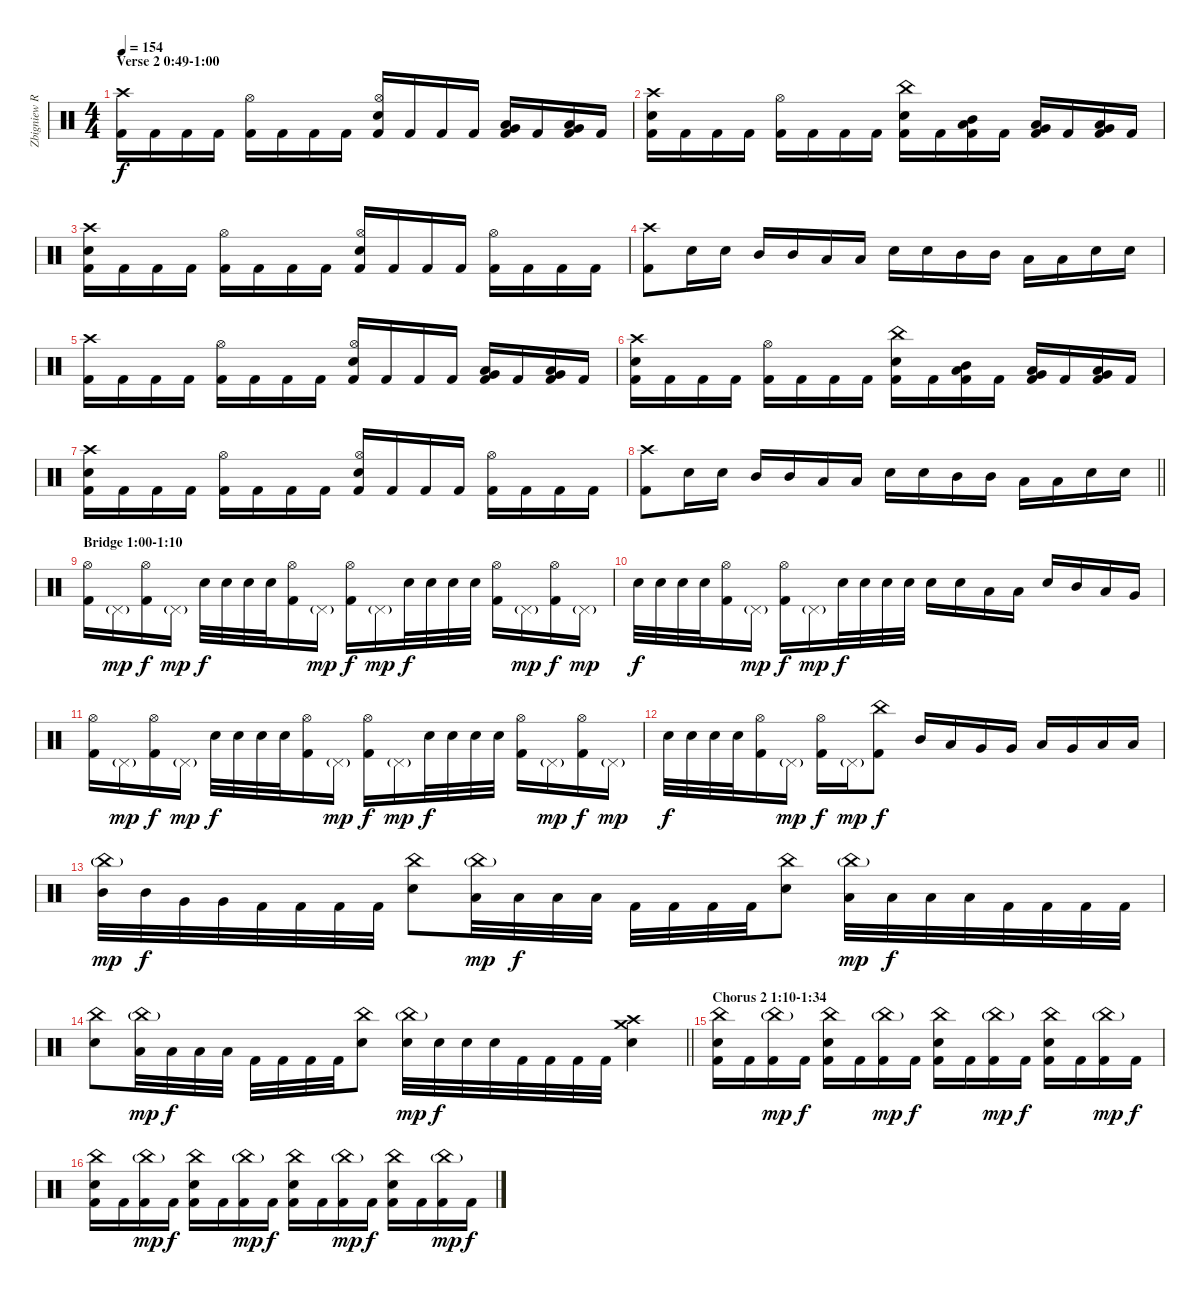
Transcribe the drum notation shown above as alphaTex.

\track ("Zbigniew Robert \"Inferno\" Prominski" "Zbigniew R") {instrument percussion}
\staff {score}
\articulation defaults
\ts (4 4)
\section ("" "Verse 2 0:49-1:00")
\tempo 154
\clef neutral
\ks c
("Crash high (hit)" "Kick (hit) 2").16{dy f} "Kick (hit) 2".16 "Kick (hit) 2".16 "Kick (hit) 2".16 ("Hi-Hat (open)" "Kick (hit) 2").16 "Kick (hit) 2".16 "Kick (hit) 2".16 "Kick (hit) 2".16 ("Hi-Hat (open)" "Snare (hit) 2" "Kick (hit) 2").16 "Kick (hit) 2".16 "Kick (hit) 2".16 "Kick (hit) 2".16 ("Low Floor Tom (hit)" "Very Low Tom (hit)" "Kick (hit) 2").16 "Kick (hit) 2".16 ("Low Floor Tom (hit)" "Very Low Tom (hit)" "Kick (hit) 2").16 "Kick (hit) 2".16 |
("Snare (hit) 2" "Crash high (hit)" "Kick (hit) 2").16 "Kick (hit) 2".16 "Kick (hit) 2".16 "Kick (hit) 2".16 ("Hi-Hat (open)" "Kick (hit) 2").16 "Kick (hit) 2".16 "Kick (hit) 2".16 "Kick (hit) 2".16 ("China (hit)" "Snare (hit) 2" "Kick (hit) 2").16 "Kick (hit) 2".16 ("Low Tom (hit)" "Mid Tom (hit)" "Kick (hit) 2").16 "Kick (hit) 2".16 ("Low Tom (hit)" "Very Low Tom (hit)" "Kick (hit) 2").16 "Kick (hit) 2".16 ("Low Floor Tom (hit)" "Very Low Tom (hit)" "Kick (hit) 2").16 "Kick (hit) 2".16 |
("Snare (hit) 2" "Crash high (hit)" "Kick (hit) 2").16 "Kick (hit) 2".16 "Kick (hit) 2".16 "Kick (hit) 2".16 ("Hi-Hat (open)" "Kick (hit) 2").16 "Kick (hit) 2".16 "Kick (hit) 2".16 "Kick (hit) 2".16 ("Hi-Hat (open)" "Snare (hit) 2" "Kick (hit) 2").16 "Kick (hit) 2".16 "Kick (hit) 2".16 "Kick (hit) 2".16 ("Hi-Hat (open)" "Kick (hit) 2").16 "Kick (hit) 2".16 "Kick (hit) 2".16 "Kick (hit) 2".16 |
("Crash high (hit)" "Kick (hit) 2").8 "Snare (hit) 2".16 "Snare (hit) 2".16 "Mid Tom (hit)".16 "Mid Tom (hit)".16 "Low Tom (hit)".16 "Low Tom (hit)".16 "Snare (hit) 2".16 "Snare (hit) 2".16 "Mid Tom (hit)".16 "Mid Tom (hit)".16 "Low Tom (hit)".16 "Low Tom (hit)".16 "Snare (hit) 2".16 "Snare (hit) 2".16 |
("Crash high (hit)" "Kick (hit) 2").16 "Kick (hit) 2".16 "Kick (hit) 2".16 "Kick (hit) 2".16 ("Hi-Hat (open)" "Kick (hit) 2").16 "Kick (hit) 2".16 "Kick (hit) 2".16 "Kick (hit) 2".16 ("Hi-Hat (open)" "Snare (hit) 2" "Kick (hit) 2").16 "Kick (hit) 2".16 "Kick (hit) 2".16 "Kick (hit) 2".16 ("Low Floor Tom (hit)" "Very Low Tom (hit)" "Kick (hit) 2").16 "Kick (hit) 2".16 ("Low Floor Tom (hit)" "Very Low Tom (hit)" "Kick (hit) 2").16 "Kick (hit) 2".16 |
("Snare (hit) 2" "Crash high (hit)" "Kick (hit) 2").16 "Kick (hit) 2".16 "Kick (hit) 2".16 "Kick (hit) 2".16 ("Hi-Hat (open)" "Kick (hit) 2").16 "Kick (hit) 2".16 "Kick (hit) 2".16 "Kick (hit) 2".16 ("China (hit)" "Snare (hit) 2" "Kick (hit) 2").16 "Kick (hit) 2".16 ("Low Tom (hit)" "Mid Tom (hit)" "Kick (hit) 2").16 "Kick (hit) 2".16 ("Low Tom (hit)" "Very Low Tom (hit)" "Kick (hit) 2").16 "Kick (hit) 2".16 ("Low Floor Tom (hit)" "Very Low Tom (hit)" "Kick (hit) 2").16 "Kick (hit) 2".16 |
("Snare (hit) 2" "Crash high (hit)" "Kick (hit) 2").16 "Kick (hit) 2".16 "Kick (hit) 2".16 "Kick (hit) 2".16 ("Hi-Hat (open)" "Kick (hit) 2").16 "Kick (hit) 2".16 "Kick (hit) 2".16 "Kick (hit) 2".16 ("Hi-Hat (open)" "Snare (hit) 2" "Kick (hit) 2").16 "Kick (hit) 2".16 "Kick (hit) 2".16 "Kick (hit) 2".16 ("Hi-Hat (open)" "Kick (hit) 2").16 "Kick (hit) 2".16 "Kick (hit) 2".16 "Kick (hit) 2".16 |
\barLineRight lightlight
("Crash high (hit)" "Kick (hit) 2").8 "Snare (hit) 2".16 "Snare (hit) 2".16 "Mid Tom (hit)".16 "Mid Tom (hit)".16 "Low Tom (hit)".16 "Low Tom (hit)".16 "Snare (hit) 2".16 "Snare (hit) 2".16 "Mid Tom (hit)".16 "Mid Tom (hit)".16 "Low Tom (hit)".16 "Low Tom (hit)".16 "Snare (hit) 2".16 "Snare (hit) 2".16 |
\section ("" "Bridge 1:00-1:10")
("Hi-Hat (open)" "Kick (hit) 2").16 "Pedal Hi-Hat (hit)"{g}.16{dy mp} ("Hi-Hat (open)" "Kick (hit) 2").16{dy f} "Pedal Hi-Hat (hit)"{g}.16{dy mp} "Snare (hit) 2".32{dy f} "Snare (hit) 2".32 "Snare (hit) 2".32 "Snare (hit) 2".32 ("Hi-Hat (open)" "Kick (hit) 2").16 "Pedal Hi-Hat (hit)"{g}.16{dy mp} ("Hi-Hat (open)" "Kick (hit) 2").16{dy f} "Pedal Hi-Hat (hit)"{g}.16{dy mp} "Snare (hit) 2".32{dy f} "Snare (hit) 2".32 "Snare (hit) 2".32 "Snare (hit) 2".32 ("Hi-Hat (open)" "Kick (hit) 2").16 "Pedal Hi-Hat (hit)"{g}.16{dy mp} ("Hi-Hat (open)" "Kick (hit) 2").16{dy f} "Pedal Hi-Hat (hit)"{g}.16{dy mp} |
"Snare (hit) 2".32{dy f} "Snare (hit) 2".32 "Snare (hit) 2".32 "Snare (hit) 2".32 ("Hi-Hat (open)" "Kick (hit) 2").16 "Pedal Hi-Hat (hit)"{g}.16{dy mp} ("Hi-Hat (open)" "Kick (hit) 2").16{dy f} "Pedal Hi-Hat (hit)"{g}.16{dy mp} "Snare (hit) 2".32{dy f} "Snare (hit) 2".32 "Snare (hit) 2".32 "Snare (hit) 2".32 "Snare (hit) 2".16 "Snare (hit) 2".16 "Low Tom (hit)".16 "Low Tom (hit)".16 "Snare (hit) 2".16 "Mid Tom (hit)".16 "Low Tom (hit)".16 "Very Low Tom (hit)".16 |
("Hi-Hat (open)" "Kick (hit) 2").16 "Pedal Hi-Hat (hit)"{g}.16{dy mp} ("Hi-Hat (open)" "Kick (hit) 2").16{dy f} "Pedal Hi-Hat (hit)"{g}.16{dy mp} "Snare (hit) 2".32{dy f} "Snare (hit) 2".32 "Snare (hit) 2".32 "Snare (hit) 2".32 ("Hi-Hat (open)" "Kick (hit) 2").16 "Pedal Hi-Hat (hit)"{g}.16{dy mp} ("Hi-Hat (open)" "Kick (hit) 2").16{dy f} "Pedal Hi-Hat (hit)"{g}.16{dy mp} "Snare (hit) 2".32{dy f} "Snare (hit) 2".32 "Snare (hit) 2".32 "Snare (hit) 2".32 ("Hi-Hat (open)" "Kick (hit) 2").16 "Pedal Hi-Hat (hit)"{g}.16{dy mp} ("Hi-Hat (open)" "Kick (hit) 2").16{dy f} "Pedal Hi-Hat (hit)"{g}.16{dy mp} |
"Snare (hit) 2".32{dy f} "Snare (hit) 2".32 "Snare (hit) 2".32 "Snare (hit) 2".32 ("Hi-Hat (open)" "Kick (hit) 2").16 "Pedal Hi-Hat (hit)"{g}.16{dy mp} ("Hi-Hat (open)" "Kick (hit) 2").16{dy f} "Pedal Hi-Hat (hit)"{g}.16{dy mp} ("China (hit)" "Kick (hit) 2").8{dy f} "Mid Tom (hit)".16 "Low Tom (hit)".16 "Very Low Tom (hit)".16 "Very Low Tom (hit)".16 "Low Tom (hit)".16 "Very Low Tom (hit)".16 "Low Floor Tom (hit)".16 "Low Floor Tom (hit)".16 |
("China (hit)"{g} "Mid Tom (hit)").32{dy mp} "Mid Tom (hit)".32{dy f} "Very Low Tom (hit)".32 "Very Low Tom (hit)".32 "Kick (hit) 2".32 "Kick (hit) 2".32 "Kick (hit) 2".32 "Kick (hit) 2".32 ("China (hit)" "Snare (hit) 2").8 ("China (hit)"{g} "Low Tom (hit)").32{dy mp} "Low Tom (hit)".32{dy f} "Low Floor Tom (hit)".32 "Low Floor Tom (hit)".32 "Kick (hit) 2".32 "Kick (hit) 2".32 "Kick (hit) 2".32 "Kick (hit) 2".32 ("China (hit)" "Snare (hit) 2").8 ("China (hit)"{g} "Low Tom (hit)").32{dy mp} "Low Tom (hit)".32{dy f} "Low Floor Tom (hit)".32 "Low Floor Tom (hit)".32 "Kick (hit) 2".32 "Kick (hit) 2".32 "Kick (hit) 2".32 "Kick (hit) 2".32 |
\barLineRight lightlight
("China (hit)" "Snare (hit) 2").8 ("China (hit)"{g} "Low Tom (hit)").32{dy mp} "Low Tom (hit)".32{dy f} "Low Floor Tom (hit)".32 "Low Floor Tom (hit)".32 "Kick (hit) 2".32 "Kick (hit) 2".32 "Kick (hit) 2".32 "Kick (hit) 2".32 ("China (hit)" "Snare (hit) 2").8 ("China (hit)"{g} "Snare (hit) 2").32{dy mp} "Snare (hit) 2".32{dy f} "Snare (hit) 2".32 "Snare (hit) 2".32 "Kick (hit) 2".32 "Kick (hit) 2".32 "Kick (hit) 2".32 "Kick (hit) 2".32 ("Crash medium (hit)" "Crash high (hit)" "Snare (hit) 2").4 |
\section ("" "Chorus 2 1:10-1:34")
("China (hit)" "Snare (hit) 2" "Kick (hit) 2").16 "Kick (hit) 2".16 ("China (hit)"{g} "Kick (hit) 2").16{dy mp} "Kick (hit) 2".16{dy f} ("China (hit)" "Snare (hit) 2" "Kick (hit) 2").16 "Kick (hit) 2".16 ("China (hit)"{g} "Kick (hit) 2").16{dy mp} "Kick (hit) 2".16{dy f} ("China (hit)" "Snare (hit) 2" "Kick (hit) 2").16 "Kick (hit) 2".16 ("China (hit)"{g} "Kick (hit) 2").16{dy mp} "Kick (hit) 2".16{dy f} ("China (hit)" "Snare (hit) 2" "Kick (hit) 2").16 "Kick (hit) 2".16 ("China (hit)"{g} "Kick (hit) 2").16{dy mp} "Kick (hit) 2".16{dy f} |
("China (hit)" "Snare (hit) 2" "Kick (hit) 2").16 "Kick (hit) 2".16 ("China (hit)"{g} "Kick (hit) 2").16{dy mp} "Kick (hit) 2".16{dy f} ("China (hit)" "Snare (hit) 2" "Kick (hit) 2").16 "Kick (hit) 2".16 ("China (hit)"{g} "Kick (hit) 2").16{dy mp} "Kick (hit) 2".16{dy f} ("China (hit)" "Snare (hit) 2" "Kick (hit) 2").16 "Kick (hit) 2".16 ("China (hit)"{g} "Kick (hit) 2").16{dy mp} "Kick (hit) 2".16{dy f} ("China (hit)" "Snare (hit) 2" "Kick (hit) 2").16 "Kick (hit) 2".16 ("China (hit)"{g} "Kick (hit) 2").16{dy mp} "Kick (hit) 2".16{dy f}
